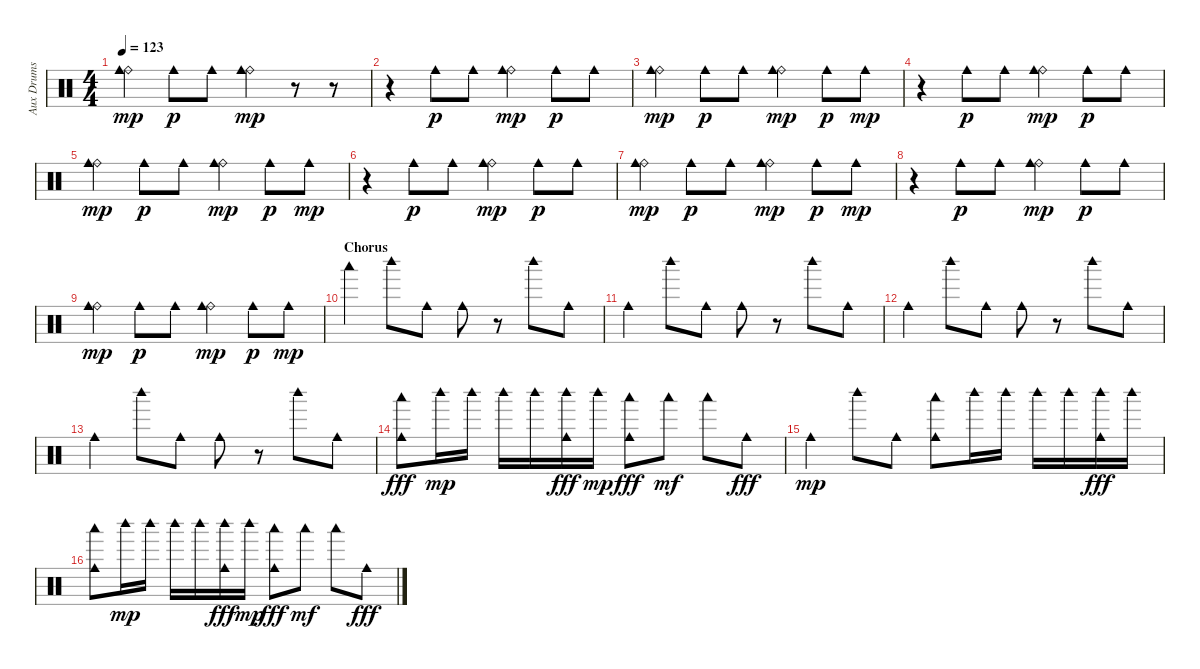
\track ("Aux Drums" "Aux Drums") {instrument percussion}
\staff {score}
\articulation defaults
\ts (4 4)
\tempo 123
\clef neutral
\ks c
("Ride (bell)" "Cowbell medium (hit)").4{dy mp} "Cowbell medium (hit)".8{dy p} "Cowbell medium (hit)".8 ("Ride (bell)" "Cowbell medium (hit)").4{dy mp} r.8 r.8 |
r.4 "Cowbell medium (hit)".8{dy p} "Cowbell medium (hit)".8 ("Ride (bell)" "Cowbell medium (hit)").4{dy mp} "Cowbell medium (hit)".8{dy p} "Cowbell medium (hit)".8 |
("Ride (bell)" "Cowbell medium (hit)").4{dy mp} "Cowbell medium (hit)".8{dy p} "Cowbell medium (hit)".8 ("Ride (bell)" "Cowbell medium (hit)").4{dy mp} "Cowbell medium (hit)".8{dy p} "Cowbell medium (hit)".8{dy mp} |
r.4 "Cowbell medium (hit)".8{dy p} "Cowbell medium (hit)".8 ("Ride (bell)" "Cowbell medium (hit)").4{dy mp} "Cowbell medium (hit)".8{dy p} "Cowbell medium (hit)".8 |
("Ride (bell)" "Cowbell medium (hit)").4{dy mp} "Cowbell medium (hit)".8{dy p} "Cowbell medium (hit)".8 ("Ride (bell)" "Cowbell medium (hit)").4{dy mp} "Cowbell medium (hit)".8{dy p} "Cowbell medium (hit)".8{dy mp} |
r.4 "Cowbell medium (hit)".8{dy p} "Cowbell medium (hit)".8 ("Ride (bell)" "Cowbell medium (hit)").4{dy mp} "Cowbell medium (hit)".8{dy p} "Cowbell medium (hit)".8 |
("Ride (bell)" "Cowbell medium (hit)").4{dy mp} "Cowbell medium (hit)".8{dy p} "Cowbell medium (hit)".8 ("Ride (bell)" "Cowbell medium (hit)").4{dy mp} "Cowbell medium (hit)".8{dy p} "Cowbell medium (hit)".8{dy mp} |
r.4 "Cowbell medium (hit)".8{dy p} "Cowbell medium (hit)".8 ("Ride (bell)" "Cowbell medium (hit)").4{dy mp} "Cowbell medium (hit)".8{dy p} "Cowbell medium (hit)".8 |
("Ride (bell)" "Cowbell medium (hit)").4{dy mp} "Cowbell medium (hit)".8{dy p} "Cowbell medium (hit)".8 ("Ride (bell)" "Cowbell medium (hit)").4{dy mp} "Cowbell medium (hit)".8{dy p} "Cowbell medium (hit)".8{dy mp} |
\section ("" "Chorus")
"Woodblock low (hit)".4 "Woodblock high (hit)".8 "Cowbell medium (hit)".8 "Cowbell medium (hit)".8 r.8 "Woodblock high (hit)".8 "Cowbell medium (hit)".8 |
"Cowbell medium (hit)".4 "Woodblock high (hit)".8 "Cowbell medium (hit)".8 "Cowbell medium (hit)".8 r.8 "Woodblock high (hit)".8 "Cowbell medium (hit)".8 |
"Cowbell medium (hit)".4 "Woodblock high (hit)".8 "Cowbell medium (hit)".8 "Cowbell medium (hit)".8 r.8 "Woodblock high (hit)".8 "Cowbell medium (hit)".8 |
"Cowbell medium (hit)".4 "Woodblock high (hit)".8 "Cowbell medium (hit)".8 "Cowbell medium (hit)".8 r.8 "Woodblock high (hit)".8 "Cowbell medium (hit)".8 |
("Woodblock low (hit)" "Cowbell medium (hit)").8{dy fff} "Woodblock high (hit)".16{dy mp} "Woodblock high (hit)".16 "Woodblock high (hit)".16 "Woodblock high (hit)".16 ("Woodblock high (hit)" "Cowbell medium (hit)").16{dy fff} "Woodblock high (hit)".16{dy mp} ("Woodblock low (hit)" "Cowbell medium (hit)").8{dy fff} "Woodblock low (hit)".8{dy mf} "Woodblock low (hit)".8 "Cowbell medium (hit)".8{dy fff} |
"Cowbell medium (hit)".4{dy mp} "Woodblock high (hit)".8 "Cowbell medium (hit)".8 ("Woodblock low (hit)" "Cowbell medium (hit)").8 "Woodblock high (hit)".16 "Woodblock high (hit)".16 "Woodblock high (hit)".16 "Woodblock high (hit)".16 ("Woodblock high (hit)" "Cowbell medium (hit)").16{dy fff} "Woodblock high (hit)".16 |
("Woodblock low (hit)" "Cowbell medium (hit)").8 "Woodblock high (hit)".16{dy mp} "Woodblock high (hit)".16 "Woodblock high (hit)".16 "Woodblock high (hit)".16 ("Woodblock high (hit)" "Cowbell medium (hit)").16{dy fff} "Woodblock high (hit)".16{dy mp} ("Woodblock low (hit)" "Cowbell medium (hit)").8{dy fff} "Woodblock low (hit)".8{dy mf} "Woodblock low (hit)".8 "Cowbell medium (hit)".8{dy fff}
